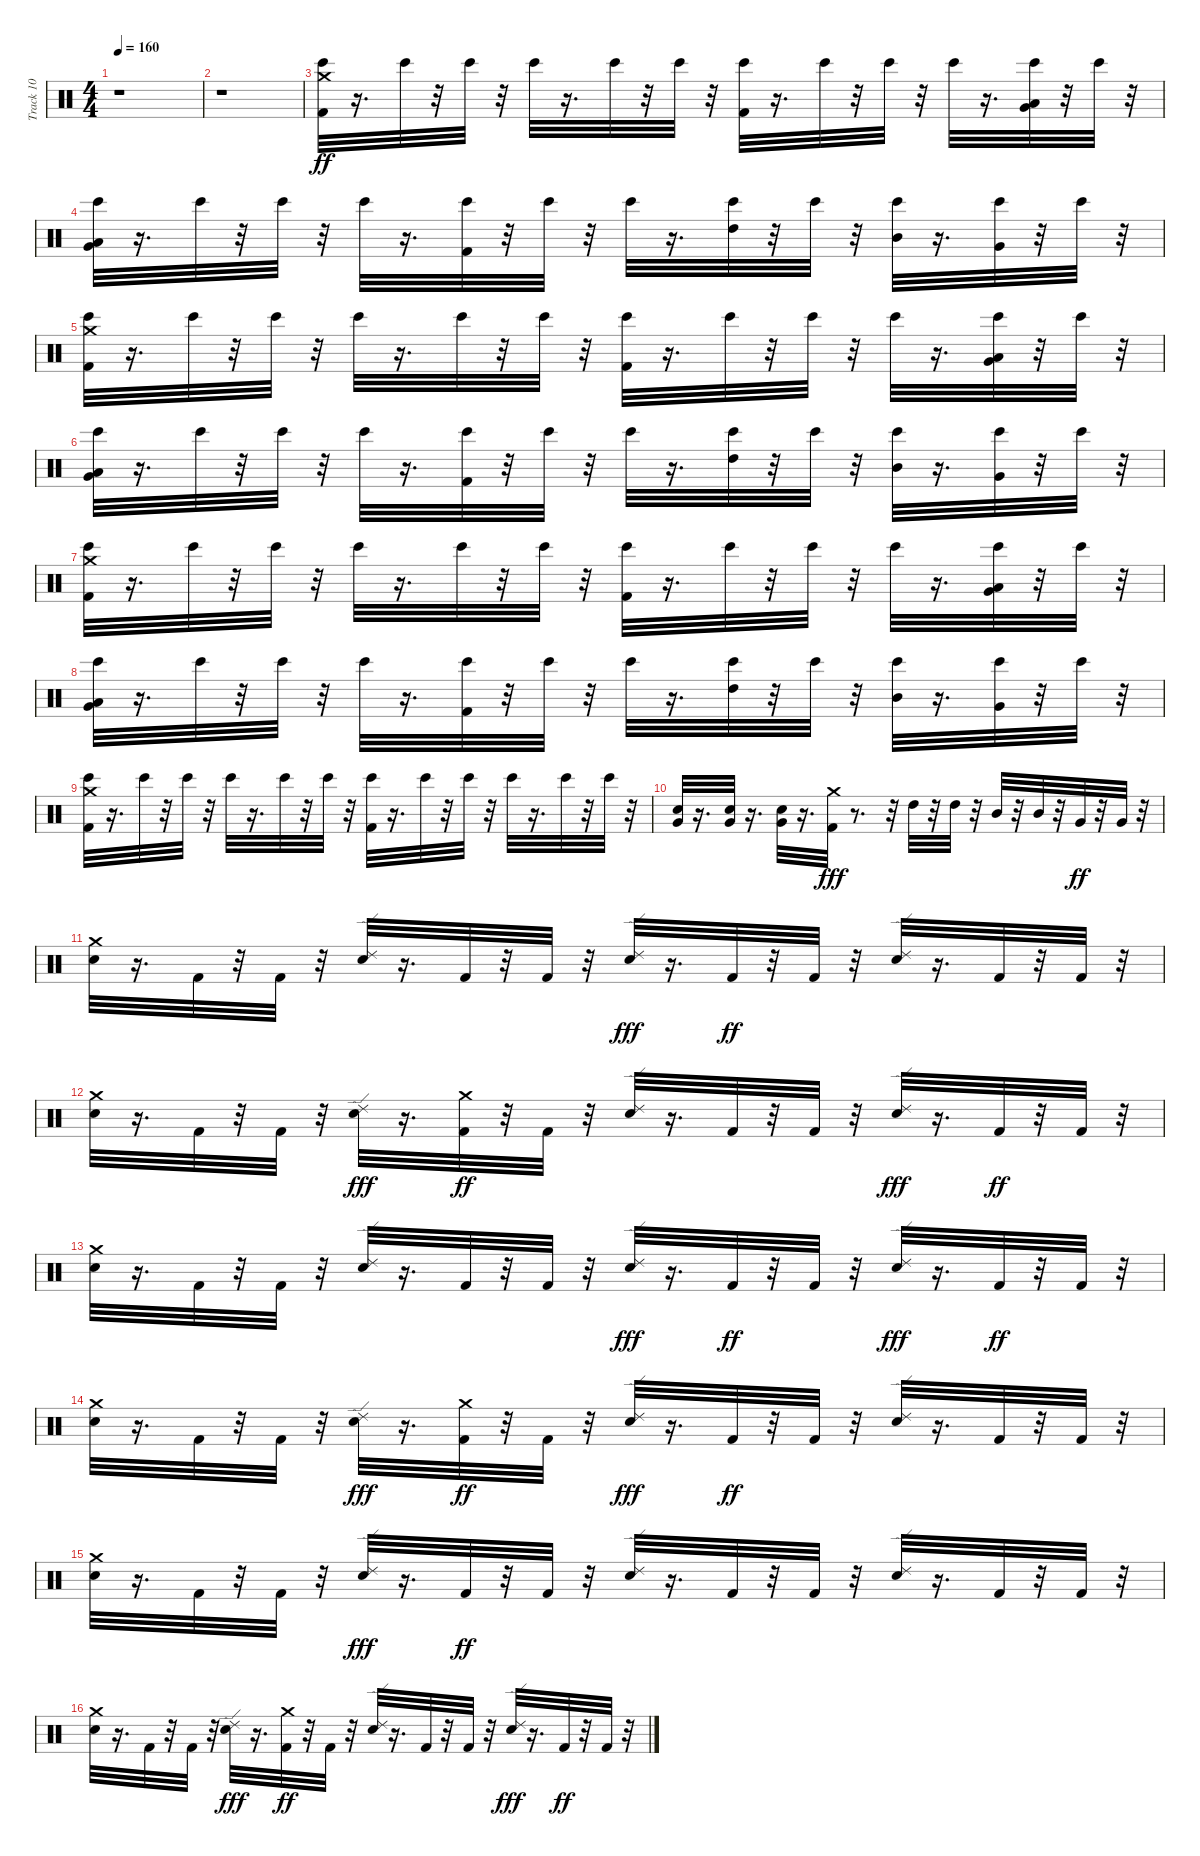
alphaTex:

\track ("Track 10" "Track 10") {instrument percussion}
\staff {score}
\articulation defaults
\ts (4 4)
\tempo 160
\clef neutral
\ks c
r.1{dy ff} |
r.1 |
("Kick (hit) 2" "Crash medium (hit)" "Bongo High (hit)").32 r.16{d} "Bongo High (hit)".32 r.32 "Bongo High (hit)".32 r.32 "Bongo High (hit)".32 r.16{d} "Bongo High (hit)".32 r.32 "Bongo High (hit)".32 r.32 ("Kick (hit) 2" "Bongo High (hit)").32 r.16{d} "Bongo High (hit)".32 r.32 "Bongo High (hit)".32 r.32 "Bongo High (hit)".32 r.16{d} ("Very Low Tom (hit)" "Low Tom (hit)" "Bongo High (hit)").32 r.32 "Bongo High (hit)".32 r.32 |
("Very Low Tom (hit)" "Low Tom (hit)" "Bongo High (hit)").32 r.16{d} "Bongo High (hit)".32 r.32 "Bongo High (hit)".32 r.32 "Bongo High (hit)".32 r.16{d} ("Kick (hit) 2" "Bongo High (hit)").32 r.32 "Bongo High (hit)".32 r.32 "Bongo High (hit)".32 r.16{d} ("High Tom (hit)" "Bongo High (hit)").32 r.32 "Bongo High (hit)".32 r.32 ("Mid Tom (hit)" "Bongo High (hit)").32 r.16{d} ("Very Low Tom (hit)" "Bongo High (hit)").32 r.32 "Bongo High (hit)".32 r.32 |
("Crash medium (hit)" "Kick (hit) 2" "Bongo High (hit)").32 r.16{d} "Bongo High (hit)".32 r.32 "Bongo High (hit)".32 r.32 "Bongo High (hit)".32 r.16{d} "Bongo High (hit)".32 r.32 "Bongo High (hit)".32 r.32 ("Kick (hit) 2" "Bongo High (hit)").32 r.16{d} "Bongo High (hit)".32 r.32 "Bongo High (hit)".32 r.32 "Bongo High (hit)".32 r.16{d} ("Very Low Tom (hit)" "Low Tom (hit)" "Bongo High (hit)").32 r.32 "Bongo High (hit)".32 r.32 |
("Very Low Tom (hit)" "Low Tom (hit)" "Bongo High (hit)").32 r.16{d} "Bongo High (hit)".32 r.32 "Bongo High (hit)".32 r.32 "Bongo High (hit)".32 r.16{d} ("Kick (hit) 2" "Bongo High (hit)").32 r.32 "Bongo High (hit)".32 r.32 "Bongo High (hit)".32 r.16{d} ("High Tom (hit)" "Bongo High (hit)").32 r.32 "Bongo High (hit)".32 r.32 ("Mid Tom (hit)" "Bongo High (hit)").32 r.16{d} ("Very Low Tom (hit)" "Bongo High (hit)").32 r.32 "Bongo High (hit)".32 r.32 |
("Kick (hit) 2" "Crash medium (hit)" "Bongo High (hit)").32 r.16{d} "Bongo High (hit)".32 r.32 "Bongo High (hit)".32 r.32 "Bongo High (hit)".32 r.16{d} "Bongo High (hit)".32 r.32 "Bongo High (hit)".32 r.32 ("Kick (hit) 2" "Bongo High (hit)").32 r.16{d} "Bongo High (hit)".32 r.32 "Bongo High (hit)".32 r.32 "Bongo High (hit)".32 r.16{d} ("Very Low Tom (hit)" "Low Tom (hit)" "Bongo High (hit)").32 r.32 "Bongo High (hit)".32 r.32 |
("Very Low Tom (hit)" "Low Tom (hit)" "Bongo High (hit)").32 r.16{d} "Bongo High (hit)".32 r.32 "Bongo High (hit)".32 r.32 "Bongo High (hit)".32 r.16{d} ("Kick (hit) 2" "Bongo High (hit)").32 r.32 "Bongo High (hit)".32 r.32 "Bongo High (hit)".32 r.16{d} ("High Tom (hit)" "Bongo High (hit)").32 r.32 "Bongo High (hit)".32 r.32 ("Mid Tom (hit)" "Bongo High (hit)").32 r.16{d} ("Very Low Tom (hit)" "Bongo High (hit)").32 r.32 "Bongo High (hit)".32 r.32 |
("Kick (hit) 2" "Crash medium (hit)" "Bongo High (hit)").32 r.16{d} "Bongo High (hit)".32 r.32 "Bongo High (hit)".32 r.32 "Bongo High (hit)".32 r.16{d} "Bongo High (hit)".32 r.32 "Bongo High (hit)".32 r.32 ("Kick (hit) 2" "Bongo High (hit)").32 r.16{d} "Bongo High (hit)".32 r.32 "Bongo High (hit)".32 r.32 "Bongo High (hit)".32 r.16{d} "Bongo High (hit)".32 r.32 "Bongo High (hit)".32 r.32 |
("Very Low Tom (hit)" "Electric Snare (hit)").32 r.16{d} ("Very Low Tom (hit)" "Electric Snare (hit)").32 r.16{d} ("Very Low Tom (hit)" "Electric Snare (hit)").32 r.16{d} ("Kick (hit) 2" "Crash medium (hit)").32{dy fff} r.8{d} r.32 "High Tom (hit)".32 r.32 "High Tom (hit)".32 r.32 "Mid Tom (hit)".32 r.32 "Mid Tom (hit)".32 r.32 "Very Low Tom (hit)".32{dy ff} r.32 "Very Low Tom (hit)".32 r.32 |
("Electric Snare (hit)" "Crash medium (hit)").32 r.16{d} "Kick (hit) 2".32 r.32 "Kick (hit) 2".32 r.32 ("Ride (edge) 2" "Electric Snare (hit)").32 r.16{d} "Kick (hit) 2".32 r.32 "Kick (hit) 2".32 r.32 ("Electric Snare (hit)" "Ride (edge) 2").32{dy fff} r.16{d} "Kick (hit) 2".32{dy ff} r.32 "Kick (hit) 2".32 r.32 ("Ride (edge) 2" "Electric Snare (hit)").32 r.16{d} "Kick (hit) 2".32 r.32 "Kick (hit) 2".32 r.32 |
("Electric Snare (hit)" "Crash medium (hit)").32 r.16{d} "Kick (hit) 2".32 r.32 "Kick (hit) 2".32 r.32 ("Electric Snare (hit)" "Ride (edge) 2").32{dy fff} r.16{d} ("Crash medium (hit)" "Kick (hit) 2").32{dy ff} r.32 "Kick (hit) 2".32 r.32 ("Ride (edge) 2" "Electric Snare (hit)").32 r.16{d} "Kick (hit) 2".32 r.32 "Kick (hit) 2".32 r.32 ("Electric Snare (hit)" "Ride (edge) 2").32{dy fff} r.16{d} "Kick (hit) 2".32{dy ff} r.32 "Kick (hit) 2".32 r.32 |
("Crash medium (hit)" "Electric Snare (hit)").32 r.16{d} "Kick (hit) 2".32 r.32 "Kick (hit) 2".32 r.32 ("Ride (edge) 2" "Electric Snare (hit)").32 r.16{d} "Kick (hit) 2".32 r.32 "Kick (hit) 2".32 r.32 ("Electric Snare (hit)" "Ride (edge) 2").32{dy fff} r.16{d} "Kick (hit) 2".32{dy ff} r.32 "Kick (hit) 2".32 r.32 ("Electric Snare (hit)" "Ride (edge) 2").32{dy fff} r.16{d} "Kick (hit) 2".32{dy ff} r.32 "Kick (hit) 2".32 r.32 |
("Electric Snare (hit)" "Crash medium (hit)").32 r.16{d} "Kick (hit) 2".32 r.32 "Kick (hit) 2".32 r.32 ("Electric Snare (hit)" "Ride (edge) 2").32{dy fff} r.16{d} ("Crash medium (hit)" "Kick (hit) 2").32{dy ff} r.32 "Kick (hit) 2".32 r.32 ("Electric Snare (hit)" "Ride (edge) 2").32{dy fff} r.16{d} "Kick (hit) 2".32{dy ff} r.32 "Kick (hit) 2".32 r.32 ("Ride (edge) 2" "Electric Snare (hit)").32 r.16{d} "Kick (hit) 2".32 r.32 "Kick (hit) 2".32 r.32 |
("Electric Snare (hit)" "Crash medium (hit)").32 r.16{d} "Kick (hit) 2".32 r.32 "Kick (hit) 2".32 r.32 ("Electric Snare (hit)" "Ride (edge) 2").32{dy fff} r.16{d} "Kick (hit) 2".32{dy ff} r.32 "Kick (hit) 2".32 r.32 ("Ride (edge) 2" "Electric Snare (hit)").32 r.16{d} "Kick (hit) 2".32 r.32 "Kick (hit) 2".32 r.32 ("Ride (edge) 2" "Electric Snare (hit)").32 r.16{d} "Kick (hit) 2".32 r.32 "Kick (hit) 2".32 r.32 |
("Crash medium (hit)" "Electric Snare (hit)").32 r.16{d} "Kick (hit) 2".32 r.32 "Kick (hit) 2".32 r.32 ("Electric Snare (hit)" "Ride (edge) 2").32{dy fff} r.16{d} ("Crash medium (hit)" "Kick (hit) 2").32{dy ff} r.32 "Kick (hit) 2".32 r.32 ("Ride (edge) 2" "Electric Snare (hit)").32 r.16{d} "Kick (hit) 2".32 r.32 "Kick (hit) 2".32 r.32 ("Electric Snare (hit)" "Ride (edge) 2").32{dy fff} r.16{d} "Kick (hit) 2".32{dy ff} r.32 "Kick (hit) 2".32 r.32
